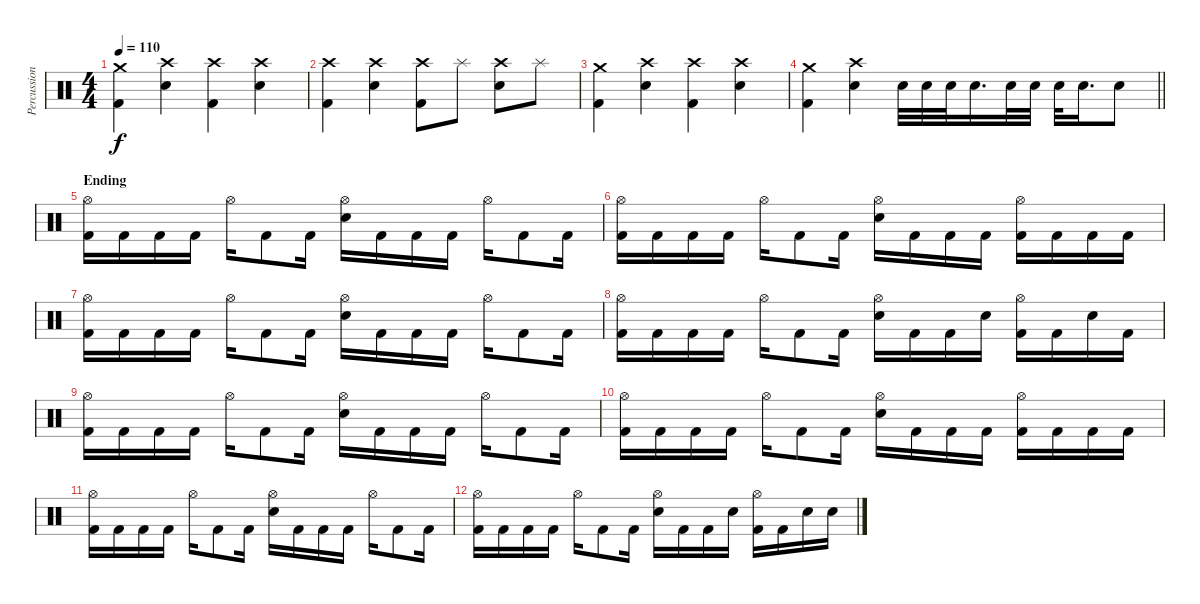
\track ("Percussions" "Percussion") {instrument percussion}
\staff {score}
\articulation defaults
\ts (4 4)
\tempo 110
\clef neutral
\ks c
("Crash medium (hit)" "Kick (hit) 2").4{dy f} ("Crash high (hit)" "Electric Snare (hit)").4 ("Crash high (hit)" "Kick (hit) 2").4 ("Crash high (hit)" "Electric Snare (hit)").4 |
("Crash high (hit)" "Kick (hit) 2").4 ("Crash high (hit)" "Electric Snare (hit)").4 ("Crash high (hit)" "Kick (hit) 2").8 "Splash (hit)".8 ("Crash high (hit)" "Electric Snare (hit)").8 "Splash (hit)".8 |
("Crash medium (hit)" "Kick (hit) 2").4 ("Crash high (hit)" "Electric Snare (hit)").4 ("Crash high (hit)" "Kick (hit) 2").4 ("Crash high (hit)" "Electric Snare (hit)").4 |
\barLineRight lightlight
("Crash medium (hit)" "Kick (hit) 2").4 ("Crash high (hit)" "Electric Snare (hit)").4 "Electric Snare (hit)".32 "Electric Snare (hit)".32 "Electric Snare (hit)".32 "Electric Snare (hit)".16{d} "Electric Snare (hit)".32 "Electric Snare (hit)".32 "Electric Snare (hit)".32 "Electric Snare (hit)".16{d} "Electric Snare (hit)".8 |
\section ("" "Ending")
("Hi-Hat (open)" "Kick (hit) 2").16 "Kick (hit) 2".16 "Kick (hit) 2".16 "Kick (hit) 2".16 "Hi-Hat (open)".16 "Kick (hit) 2".8 "Kick (hit) 2".16 ("Hi-Hat (open)" "Electric Snare (hit)").16 "Kick (hit) 2".16 "Kick (hit) 2".16 "Kick (hit) 2".16 "Hi-Hat (open)".16 "Kick (hit) 2".8 "Kick (hit) 2".16 |
("Hi-Hat (open)" "Kick (hit) 2").16 "Kick (hit) 2".16 "Kick (hit) 2".16 "Kick (hit) 2".16 "Hi-Hat (open)".16 "Kick (hit) 2".8 "Kick (hit) 2".16 ("Hi-Hat (open)" "Electric Snare (hit)").16 "Kick (hit) 2".16 "Kick (hit) 2".16 "Kick (hit) 2".16 ("Hi-Hat (open)" "Kick (hit) 2").16 "Kick (hit) 2".16 "Kick (hit) 2".16 "Kick (hit) 2".16 |
("Hi-Hat (open)" "Kick (hit) 2").16 "Kick (hit) 2".16 "Kick (hit) 2".16 "Kick (hit) 2".16 "Hi-Hat (open)".16 "Kick (hit) 2".8 "Kick (hit) 2".16 ("Hi-Hat (open)" "Electric Snare (hit)").16 "Kick (hit) 2".16 "Kick (hit) 2".16 "Kick (hit) 2".16 "Hi-Hat (open)".16 "Kick (hit) 2".8 "Kick (hit) 2".16 |
("Hi-Hat (open)" "Kick (hit) 2").16 "Kick (hit) 2".16 "Kick (hit) 2".16 "Kick (hit) 2".16 "Hi-Hat (open)".16 "Kick (hit) 2".8 "Kick (hit) 2".16 ("Hi-Hat (open)" "Electric Snare (hit)").16 "Kick (hit) 2".16 "Kick (hit) 2".16 "Electric Snare (hit)".16 ("Hi-Hat (open)" "Kick (hit) 2").16 "Kick (hit) 2".16 "Electric Snare (hit)".16 "Kick (hit) 2".16 |
("Hi-Hat (open)" "Kick (hit) 2").16 "Kick (hit) 2".16 "Kick (hit) 2".16 "Kick (hit) 2".16 "Hi-Hat (open)".16 "Kick (hit) 2".8 "Kick (hit) 2".16 ("Hi-Hat (open)" "Electric Snare (hit)").16 "Kick (hit) 2".16 "Kick (hit) 2".16 "Kick (hit) 2".16 "Hi-Hat (open)".16 "Kick (hit) 2".8 "Kick (hit) 2".16 |
("Hi-Hat (open)" "Kick (hit) 2").16 "Kick (hit) 2".16 "Kick (hit) 2".16 "Kick (hit) 2".16 "Hi-Hat (open)".16 "Kick (hit) 2".8 "Kick (hit) 2".16 ("Hi-Hat (open)" "Electric Snare (hit)").16 "Kick (hit) 2".16 "Kick (hit) 2".16 "Kick (hit) 2".16 ("Hi-Hat (open)" "Kick (hit) 2").16 "Kick (hit) 2".16 "Kick (hit) 2".16 "Kick (hit) 2".16 |
("Hi-Hat (open)" "Kick (hit) 2").16 "Kick (hit) 2".16 "Kick (hit) 2".16 "Kick (hit) 2".16 "Hi-Hat (open)".16 "Kick (hit) 2".8 "Kick (hit) 2".16 ("Hi-Hat (open)" "Electric Snare (hit)").16 "Kick (hit) 2".16 "Kick (hit) 2".16 "Kick (hit) 2".16 "Hi-Hat (open)".16 "Kick (hit) 2".8 "Kick (hit) 2".16 |
("Hi-Hat (open)" "Kick (hit) 2").16 "Kick (hit) 2".16 "Kick (hit) 2".16 "Kick (hit) 2".16 "Hi-Hat (open)".16 "Kick (hit) 2".8 "Kick (hit) 2".16 ("Hi-Hat (open)" "Electric Snare (hit)").16 "Kick (hit) 2".16 "Kick (hit) 2".16 "Electric Snare (hit)".16 ("Hi-Hat (open)" "Kick (hit) 2").16 "Kick (hit) 2".16 "Electric Snare (hit)".16 "Electric Snare (hit)".16
